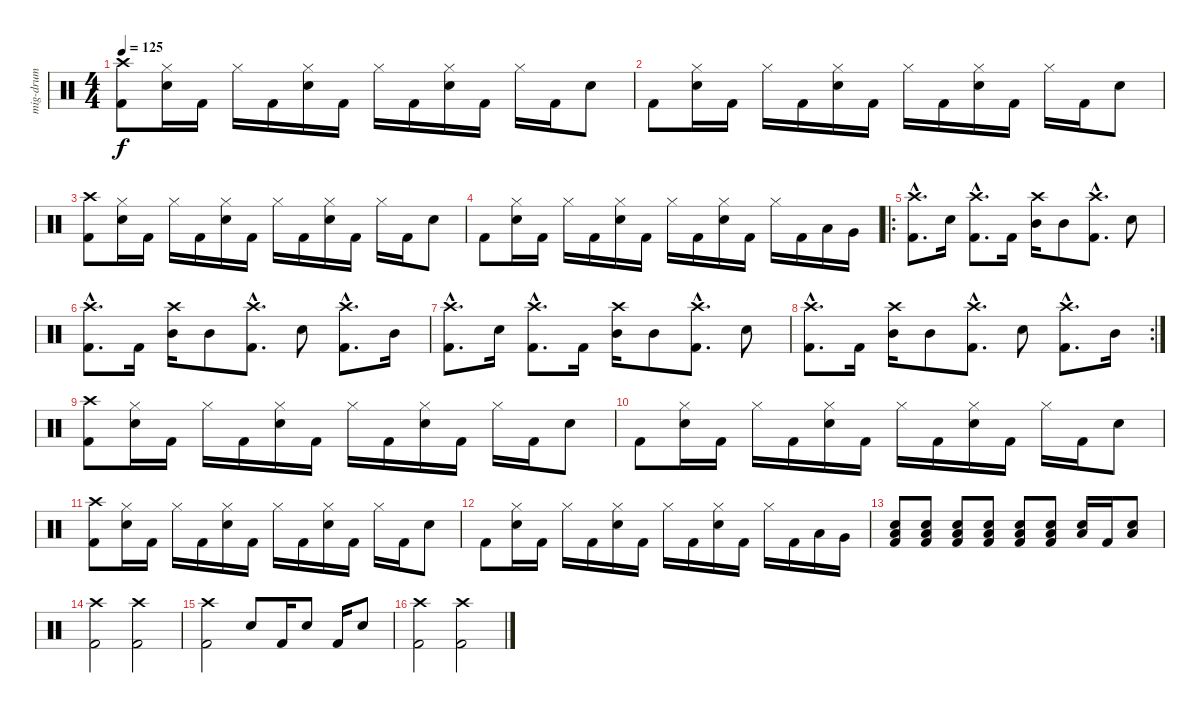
\track ("mig-drum" "mig-drum") {instrument percussion}
\staff {score}
\articulation defaults
\ts (4 4)
\tempo 125
\clef neutral
\ks c
("Crash high (hit)" "Kick (hit) 2").8{dy f} ("Hi-Hat (closed)" "Snare (hit) 2").16 "Kick (hit) 2".16 "Hi-Hat (closed)".16 "Kick (hit) 2".16 ("Hi-Hat (closed)" "Snare (hit) 2").16 "Kick (hit) 2".16 "Hi-Hat (closed)".16 "Kick (hit) 2".16 ("Hi-Hat (closed)" "Snare (hit) 2").16 "Kick (hit) 2".16 "Hi-Hat (closed)".16 "Kick (hit) 2".16 "Snare (hit) 2".8 |
"Kick (hit) 2".8 ("Hi-Hat (closed)" "Snare (hit) 2").16 "Kick (hit) 2".16 "Hi-Hat (closed)".16 "Kick (hit) 2".16 ("Hi-Hat (closed)" "Snare (hit) 2").16 "Kick (hit) 2".16 "Hi-Hat (closed)".16 "Kick (hit) 2".16 ("Hi-Hat (closed)" "Snare (hit) 2").16 "Kick (hit) 2".16 "Hi-Hat (closed)".16 "Kick (hit) 2".16 "Snare (hit) 2".8 |
("Crash high (hit)" "Kick (hit) 2").8 ("Hi-Hat (closed)" "Snare (hit) 2").16 "Kick (hit) 2".16 "Hi-Hat (closed)".16 "Kick (hit) 2".16 ("Hi-Hat (closed)" "Snare (hit) 2").16 "Kick (hit) 2".16 "Hi-Hat (closed)".16 "Kick (hit) 2".16 ("Hi-Hat (closed)" "Snare (hit) 2").16 "Kick (hit) 2".16 "Hi-Hat (closed)".16 "Kick (hit) 2".16 "Snare (hit) 2".8 |
"Kick (hit) 2".8 ("Hi-Hat (closed)" "Snare (hit) 2").16 "Kick (hit) 2".16 "Hi-Hat (closed)".16 "Kick (hit) 2".16 ("Hi-Hat (closed)" "Snare (hit) 2").16 "Kick (hit) 2".16 "Hi-Hat (closed)".16 "Kick (hit) 2".16 ("Hi-Hat (closed)" "Snare (hit) 2").16 "Kick (hit) 2".16 "Hi-Hat (closed)".16 "Kick (hit) 2".16 "Low Tom (hit)".16 "Very Low Tom (hit)".16 |
\ro
("Crash high (hit)"{hac} "Kick (hit) 2"{hac}).8{d} "Snare (hit) 2".16 ("Crash high (hit)"{hac} "Kick (hit) 2"{hac}).8{d} "Kick (hit) 2".16 ("Crash high (hit)" "Mid Tom (hit)").16 "Mid Tom (hit)".8 ("Crash high (hit)"{hac} "Kick (hit) 2"{hac}).8{d} "Snare (hit) 2".8 |
("Crash high (hit)"{hac} "Kick (hit) 2"{hac}).8{d} "Kick (hit) 2".16 ("Crash high (hit)" "Mid Tom (hit)").16 "Mid Tom (hit)".8 ("Crash high (hit)"{hac} "Kick (hit) 2"{hac}).8{d} "Snare (hit) 2".8 ("Crash high (hit)"{hac} "Kick (hit) 2"{hac}).8{d} "Mid Tom (hit)".16 |
("Crash high (hit)"{hac} "Kick (hit) 2"{hac}).8{d} "Snare (hit) 2".16 ("Crash high (hit)"{hac} "Kick (hit) 2"{hac}).8{d} "Kick (hit) 2".16 ("Crash high (hit)" "Mid Tom (hit)").16 "Mid Tom (hit)".8 ("Crash high (hit)"{hac} "Kick (hit) 2"{hac}).8{d} "Snare (hit) 2".8 |
\rc 2
("Crash high (hit)"{hac} "Kick (hit) 2"{hac}).8{d} "Kick (hit) 2".16 ("Crash high (hit)" "Mid Tom (hit)").16 "Mid Tom (hit)".8 ("Crash high (hit)"{hac} "Kick (hit) 2"{hac}).8{d} "Snare (hit) 2".8 ("Crash high (hit)"{hac} "Kick (hit) 2"{hac}).8{d} "Mid Tom (hit)".16 |
("Crash high (hit)" "Kick (hit) 2").8 ("Hi-Hat (closed)" "Snare (hit) 2").16 "Kick (hit) 2".16 "Hi-Hat (closed)".16 "Kick (hit) 2".16 ("Hi-Hat (closed)" "Snare (hit) 2").16 "Kick (hit) 2".16 "Hi-Hat (closed)".16 "Kick (hit) 2".16 ("Hi-Hat (closed)" "Snare (hit) 2").16 "Kick (hit) 2".16 "Hi-Hat (closed)".16 "Kick (hit) 2".16 "Snare (hit) 2".8 |
"Kick (hit) 2".8 ("Hi-Hat (closed)" "Snare (hit) 2").16 "Kick (hit) 2".16 "Hi-Hat (closed)".16 "Kick (hit) 2".16 ("Hi-Hat (closed)" "Snare (hit) 2").16 "Kick (hit) 2".16 "Hi-Hat (closed)".16 "Kick (hit) 2".16 ("Hi-Hat (closed)" "Snare (hit) 2").16 "Kick (hit) 2".16 "Hi-Hat (closed)".16 "Kick (hit) 2".16 "Snare (hit) 2".8 |
("Crash high (hit)" "Kick (hit) 2").8 ("Hi-Hat (closed)" "Snare (hit) 2").16 "Kick (hit) 2".16 "Hi-Hat (closed)".16 "Kick (hit) 2".16 ("Hi-Hat (closed)" "Snare (hit) 2").16 "Kick (hit) 2".16 "Hi-Hat (closed)".16 "Kick (hit) 2".16 ("Hi-Hat (closed)" "Snare (hit) 2").16 "Kick (hit) 2".16 "Hi-Hat (closed)".16 "Kick (hit) 2".16 "Snare (hit) 2".8 |
"Kick (hit) 2".8 ("Hi-Hat (closed)" "Snare (hit) 2").16 "Kick (hit) 2".16 "Hi-Hat (closed)".16 "Kick (hit) 2".16 ("Hi-Hat (closed)" "Snare (hit) 2").16 "Kick (hit) 2".16 "Hi-Hat (closed)".16 "Kick (hit) 2".16 ("Hi-Hat (closed)" "Snare (hit) 2").16 "Kick (hit) 2".16 "Hi-Hat (closed)".16 "Kick (hit) 2".16 "Low Tom (hit)".16 "Very Low Tom (hit)".16 |
("Snare (hit) 2" "Low Floor Tom (hit)" "Kick (hit) 2").8 ("Snare (hit) 2" "Low Floor Tom (hit)" "Kick (hit) 2").8 ("Snare (hit) 2" "Low Floor Tom (hit)" "Kick (hit) 2").8 ("Snare (hit) 2" "Low Floor Tom (hit)" "Kick (hit) 2").8 ("Snare (hit) 2" "Low Floor Tom (hit)" "Kick (hit) 2").8 ("Snare (hit) 2" "Low Floor Tom (hit)" "Kick (hit) 2").8 ("Snare (hit) 2" "Low Floor Tom (hit)").16 "Kick (hit) 2".16 ("Snare (hit) 2" "Low Floor Tom (hit)").8 |
("Crash high (hit)" "Kick (hit) 2").2 ("Crash high (hit)" "Kick (hit) 2").2 |
("Crash high (hit)" "Kick (hit) 2").2 "Snare (hit) 2".8 "Kick (hit) 2".16 "Snare (hit) 2".8 "Kick (hit) 2".16 "Snare (hit) 2".8 |
("Crash high (hit)" "Kick (hit) 2").2 ("Crash high (hit)" "Kick (hit) 2").2
